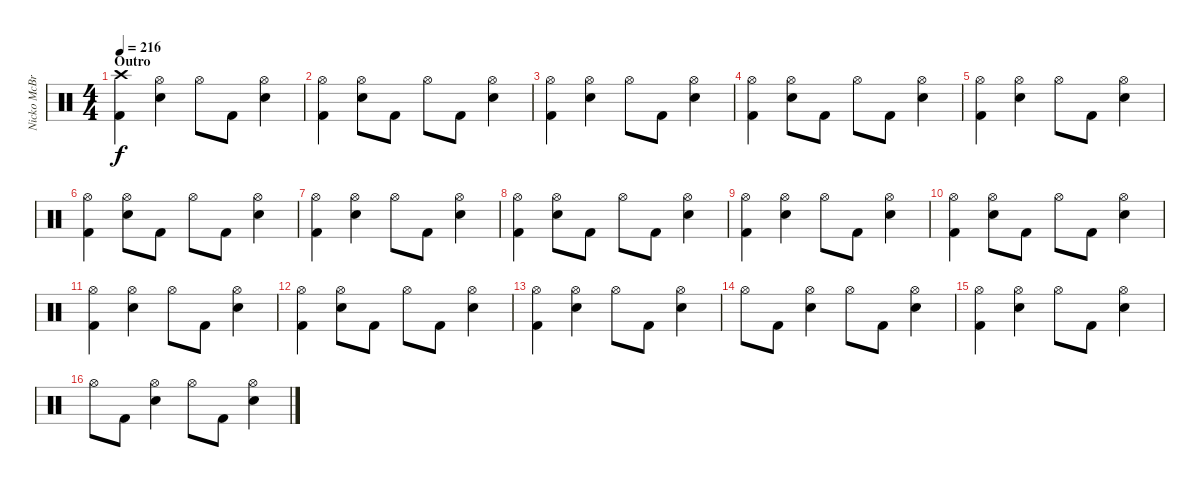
\track ("Nicko McBrain" "Nicko McBr") {instrument percussion}
\staff {score}
\articulation defaults
\ts (4 4)
\section ("" "Outro")
\tempo 216
\clef neutral
\ks c
("Crash high (hit)" "Kick (hit) 2").4{dy f} ("Hi-Hat (open)" "Snare (hit) 2").4 "Hi-Hat (open)".8 "Kick (hit) 2".8 ("Hi-Hat (open)" "Snare (hit) 2").4 |
("Hi-Hat (open)" "Kick (hit) 2").4 ("Hi-Hat (open)" "Snare (hit) 2").8 "Kick (hit) 2".8 "Hi-Hat (open)".8 "Kick (hit) 2".8 ("Hi-Hat (open)" "Snare (hit) 2").4 |
("Hi-Hat (open)" "Kick (hit) 2").4 ("Hi-Hat (open)" "Snare (hit) 2").4 "Hi-Hat (open)".8 "Kick (hit) 2".8 ("Hi-Hat (open)" "Snare (hit) 2").4 |
("Hi-Hat (open)" "Kick (hit) 2").4 ("Hi-Hat (open)" "Snare (hit) 2").8 "Kick (hit) 2".8 "Hi-Hat (open)".8 "Kick (hit) 2".8 ("Hi-Hat (open)" "Snare (hit) 2").4 |
("Hi-Hat (open)" "Kick (hit) 2").4 ("Hi-Hat (open)" "Snare (hit) 2").4 "Hi-Hat (open)".8 "Kick (hit) 2".8 ("Hi-Hat (open)" "Snare (hit) 2").4 |
("Hi-Hat (open)" "Kick (hit) 2").4 ("Hi-Hat (open)" "Snare (hit) 2").8 "Kick (hit) 2".8 "Hi-Hat (open)".8 "Kick (hit) 2".8 ("Hi-Hat (open)" "Snare (hit) 2").4 |
("Hi-Hat (open)" "Kick (hit) 2").4 ("Hi-Hat (open)" "Snare (hit) 2").4 "Hi-Hat (open)".8 "Kick (hit) 2".8 ("Hi-Hat (open)" "Snare (hit) 2").4 |
("Hi-Hat (open)" "Kick (hit) 2").4 ("Hi-Hat (open)" "Snare (hit) 2").8 "Kick (hit) 2".8 "Hi-Hat (open)".8 "Kick (hit) 2".8 ("Hi-Hat (open)" "Snare (hit) 2").4 |
("Hi-Hat (open)" "Kick (hit) 2").4 ("Hi-Hat (open)" "Snare (hit) 2").4 "Hi-Hat (open)".8 "Kick (hit) 2".8 ("Hi-Hat (open)" "Snare (hit) 2").4 |
("Hi-Hat (open)" "Kick (hit) 2").4 ("Hi-Hat (open)" "Snare (hit) 2").8 "Kick (hit) 2".8 "Hi-Hat (open)".8 "Kick (hit) 2".8 ("Hi-Hat (open)" "Snare (hit) 2").4 |
("Hi-Hat (open)" "Kick (hit) 2").4 ("Hi-Hat (open)" "Snare (hit) 2").4 "Hi-Hat (open)".8 "Kick (hit) 2".8 ("Hi-Hat (open)" "Snare (hit) 2").4 |
("Hi-Hat (open)" "Kick (hit) 2").4 ("Hi-Hat (open)" "Snare (hit) 2").8 "Kick (hit) 2".8 "Hi-Hat (open)".8 "Kick (hit) 2".8 ("Hi-Hat (open)" "Snare (hit) 2").4 |
("Hi-Hat (open)" "Kick (hit) 2").4 ("Hi-Hat (open)" "Snare (hit) 2").4 "Hi-Hat (open)".8 "Kick (hit) 2".8 ("Hi-Hat (open)" "Snare (hit) 2").4 |
"Hi-Hat (open)".8 "Kick (hit) 2".8 ("Hi-Hat (open)" "Snare (hit) 2").4 "Hi-Hat (open)".8 "Kick (hit) 2".8 ("Hi-Hat (open)" "Snare (hit) 2").4 |
("Hi-Hat (open)" "Kick (hit) 2").4 ("Hi-Hat (open)" "Snare (hit) 2").4 "Hi-Hat (open)".8 "Kick (hit) 2".8 ("Hi-Hat (open)" "Snare (hit) 2").4 |
"Hi-Hat (open)".8 "Kick (hit) 2".8 ("Hi-Hat (open)" "Snare (hit) 2").4 "Hi-Hat (open)".8 "Kick (hit) 2".8 ("Hi-Hat (open)" "Snare (hit) 2").4
